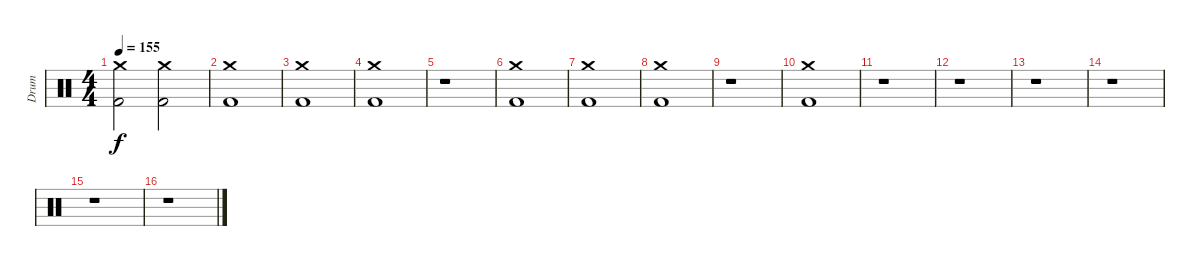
\track ("Drum" "Drum") {instrument percussion}
\staff {score}
\articulation defaults
\ts (4 4)
\tempo 155
\clef neutral
\ks c
("Kick (hit) 2" "Crash medium (hit)").2{dy f} ("Kick (hit) 2" "Crash medium (hit)").2 |
("Kick (hit) 2" "Crash medium (hit)").1 |
("Kick (hit) 2" "Crash medium (hit)").1 |
("Kick (hit) 2" "Crash medium (hit)").1 |
r.1 |
("Kick (hit) 2" "Crash medium (hit)").1 |
("Kick (hit) 2" "Crash medium (hit)").1 |
("Kick (hit) 2" "Crash medium (hit)").1 |
r.1 |
("Kick (hit) 2" "Crash medium (hit)").1 |
r.1 |
r.1 |
r.1 |
r.1 |
r.1 |
r.1
